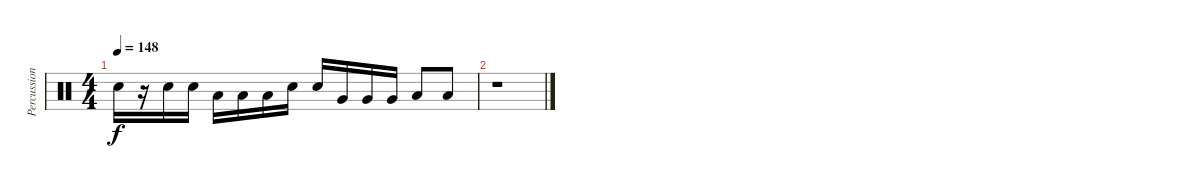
\track ("Percussion" "Percussion") {instrument percussion}
\staff {score}
\articulation defaults
\ts (4 4)
\tempo 148
\clef neutral
\ks c "Electric Snare (hit)".16{dy f}
r.16 "Electric Snare (hit)".16 "Electric Snare (hit)".16 "Low Tom (hit)".16 "Low Tom (hit)".16 "Low Tom (hit)".16 "Electric Snare (hit)".16 "Electric Snare (hit)".16 "Very Low Tom (hit)".16 "Very Low Tom (hit)".16 "Very Low Tom (hit)".16 "Low Floor Tom (hit)".8 "Low Floor Tom (hit)".8 |
r.1
